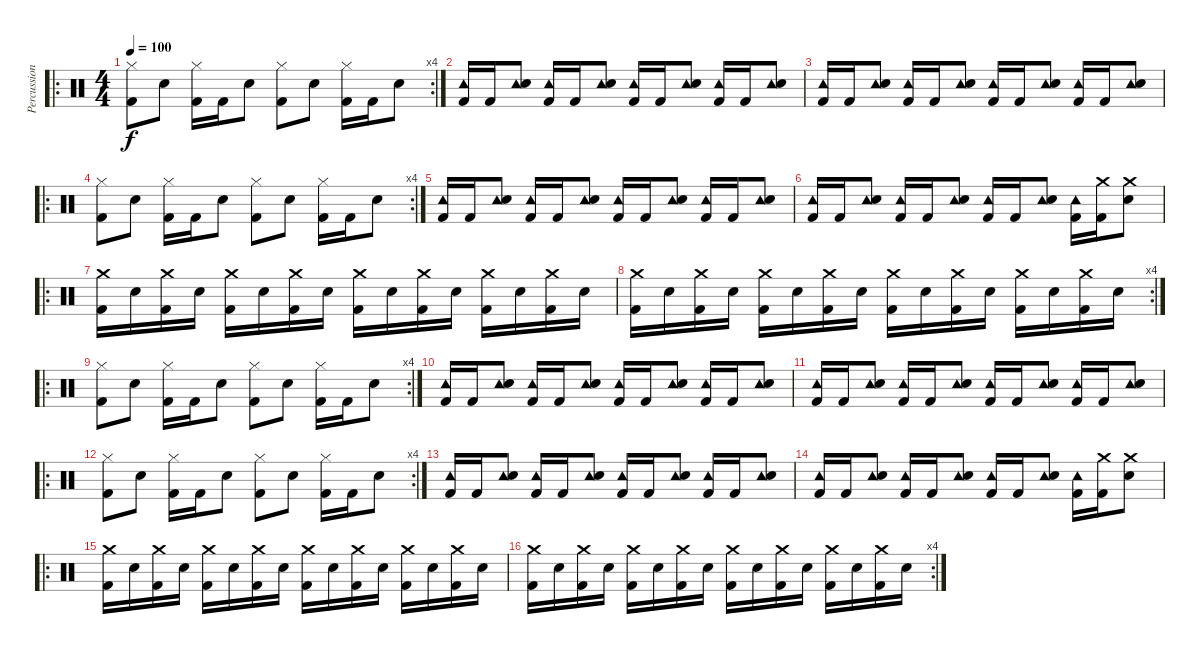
\track ("Percussion" "Percussion") {instrument percussion}
\staff {score}
\articulation defaults
\ro
\rc 4
\ts (4 4)
\tempo 100
\clef neutral
\ks c
("Hi-Hat (closed)" "Kick (hit) 2").8{dy f} "Snare (hit) 2".8 ("Hi-Hat (closed)" "Kick (hit) 2").16 "Kick (hit) 2".16 "Snare (hit) 2".8 ("Hi-Hat (closed)" "Kick (hit) 2").8 "Snare (hit) 2".8 ("Hi-Hat (closed)" "Kick (hit) 2").16 "Kick (hit) 2".16 "Snare (hit) 2".8 |
("Tambourine (hit)" "Kick (hit) 2").16 "Kick (hit) 2".16 ("Tambourine (hit)" "Snare (hit) 2").8 ("Tambourine (hit)" "Kick (hit) 2").16 "Kick (hit) 2".16 ("Tambourine (hit)" "Snare (hit) 2").8 ("Tambourine (hit)" "Kick (hit) 2").16 "Kick (hit) 2".16 ("Tambourine (hit)" "Snare (hit) 2").8 ("Tambourine (hit)" "Kick (hit) 2").16 "Kick (hit) 2".16 ("Tambourine (hit)" "Snare (hit) 2").8 |
("Tambourine (hit)" "Kick (hit) 2").16 "Kick (hit) 2".16 ("Tambourine (hit)" "Snare (hit) 2").8 ("Tambourine (hit)" "Kick (hit) 2").16 "Kick (hit) 2".16 ("Tambourine (hit)" "Snare (hit) 2").8 ("Tambourine (hit)" "Kick (hit) 2").16 "Kick (hit) 2".16 ("Tambourine (hit)" "Snare (hit) 2").8 ("Tambourine (hit)" "Kick (hit) 2").16 "Kick (hit) 2".16 ("Tambourine (hit)" "Snare (hit) 2").8 |
\ro
\rc 4
("Hi-Hat (closed)" "Kick (hit) 2").8 "Snare (hit) 2".8 ("Hi-Hat (closed)" "Kick (hit) 2").16 "Kick (hit) 2".16 "Snare (hit) 2".8 ("Hi-Hat (closed)" "Kick (hit) 2").8 "Snare (hit) 2".8 ("Hi-Hat (closed)" "Kick (hit) 2").16 "Kick (hit) 2".16 "Snare (hit) 2".8 |
("Tambourine (hit)" "Kick (hit) 2").16 "Kick (hit) 2".16 ("Tambourine (hit)" "Snare (hit) 2").8 ("Tambourine (hit)" "Kick (hit) 2").16 "Kick (hit) 2".16 ("Tambourine (hit)" "Snare (hit) 2").8 ("Tambourine (hit)" "Kick (hit) 2").16 "Kick (hit) 2".16 ("Tambourine (hit)" "Snare (hit) 2").8 ("Tambourine (hit)" "Kick (hit) 2").16 "Kick (hit) 2".16 ("Tambourine (hit)" "Snare (hit) 2").8 |
("Tambourine (hit)" "Kick (hit) 2").16 "Kick (hit) 2".16 ("Tambourine (hit)" "Snare (hit) 2").8 ("Tambourine (hit)" "Kick (hit) 2").16 "Kick (hit) 2".16 ("Tambourine (hit)" "Snare (hit) 2").8 ("Tambourine (hit)" "Kick (hit) 2").16 "Kick (hit) 2".16 ("Tambourine (hit)" "Snare (hit) 2").8 ("Tambourine (hit)" "Kick (hit) 2").16 ("Crash medium (hit)" "Kick (hit) 2").16 ("Crash medium (hit)" "Snare (hit) 2").8 |
\ro
("Crash medium (hit)" "Kick (hit) 2").16 "Snare (hit) 2".16 ("Crash medium (hit)" "Kick (hit) 2").16 "Snare (hit) 2".16 ("Crash medium (hit)" "Kick (hit) 2").16 "Snare (hit) 2".16 ("Crash medium (hit)" "Kick (hit) 2").16 "Snare (hit) 2".16 ("Crash medium (hit)" "Kick (hit) 2").16 "Snare (hit) 2".16 ("Crash medium (hit)" "Kick (hit) 2").16 "Snare (hit) 2".16 ("Crash medium (hit)" "Kick (hit) 2").16 "Snare (hit) 2".16 ("Crash medium (hit)" "Kick (hit) 2").16 "Snare (hit) 2".16 |
\rc 4
("Crash medium (hit)" "Kick (hit) 2").16 "Snare (hit) 2".16 ("Crash medium (hit)" "Kick (hit) 2").16 "Snare (hit) 2".16 ("Crash medium (hit)" "Kick (hit) 2").16 "Snare (hit) 2".16 ("Crash medium (hit)" "Kick (hit) 2").16 "Snare (hit) 2".16 ("Crash medium (hit)" "Kick (hit) 2").16 "Snare (hit) 2".16 ("Crash medium (hit)" "Kick (hit) 2").16 "Snare (hit) 2".16 ("Crash medium (hit)" "Kick (hit) 2").16 "Snare (hit) 2".16 ("Crash medium (hit)" "Kick (hit) 2").16 "Snare (hit) 2".16 |
\ro
\rc 4
("Hi-Hat (closed)" "Kick (hit) 2").8 "Snare (hit) 2".8 ("Hi-Hat (closed)" "Kick (hit) 2").16 "Kick (hit) 2".16 "Snare (hit) 2".8 ("Hi-Hat (closed)" "Kick (hit) 2").8 "Snare (hit) 2".8 ("Hi-Hat (closed)" "Kick (hit) 2").16 "Kick (hit) 2".16 "Snare (hit) 2".8 |
("Tambourine (hit)" "Kick (hit) 2").16 "Kick (hit) 2".16 ("Tambourine (hit)" "Snare (hit) 2").8 ("Tambourine (hit)" "Kick (hit) 2").16 "Kick (hit) 2".16 ("Tambourine (hit)" "Snare (hit) 2").8 ("Tambourine (hit)" "Kick (hit) 2").16 "Kick (hit) 2".16 ("Tambourine (hit)" "Snare (hit) 2").8 ("Tambourine (hit)" "Kick (hit) 2").16 "Kick (hit) 2".16 ("Tambourine (hit)" "Snare (hit) 2").8 |
("Tambourine (hit)" "Kick (hit) 2").16 "Kick (hit) 2".16 ("Tambourine (hit)" "Snare (hit) 2").8 ("Tambourine (hit)" "Kick (hit) 2").16 "Kick (hit) 2".16 ("Tambourine (hit)" "Snare (hit) 2").8 ("Tambourine (hit)" "Kick (hit) 2").16 "Kick (hit) 2".16 ("Tambourine (hit)" "Snare (hit) 2").8 ("Tambourine (hit)" "Kick (hit) 2").16 "Kick (hit) 2".16 ("Tambourine (hit)" "Snare (hit) 2").8 |
\ro
\rc 4
("Hi-Hat (closed)" "Kick (hit) 2").8 "Snare (hit) 2".8 ("Hi-Hat (closed)" "Kick (hit) 2").16 "Kick (hit) 2".16 "Snare (hit) 2".8 ("Hi-Hat (closed)" "Kick (hit) 2").8 "Snare (hit) 2".8 ("Hi-Hat (closed)" "Kick (hit) 2").16 "Kick (hit) 2".16 "Snare (hit) 2".8 |
("Tambourine (hit)" "Kick (hit) 2").16 "Kick (hit) 2".16 ("Tambourine (hit)" "Snare (hit) 2").8 ("Tambourine (hit)" "Kick (hit) 2").16 "Kick (hit) 2".16 ("Tambourine (hit)" "Snare (hit) 2").8 ("Tambourine (hit)" "Kick (hit) 2").16 "Kick (hit) 2".16 ("Tambourine (hit)" "Snare (hit) 2").8 ("Tambourine (hit)" "Kick (hit) 2").16 "Kick (hit) 2".16 ("Tambourine (hit)" "Snare (hit) 2").8 |
("Tambourine (hit)" "Kick (hit) 2").16 "Kick (hit) 2".16 ("Tambourine (hit)" "Snare (hit) 2").8 ("Tambourine (hit)" "Kick (hit) 2").16 "Kick (hit) 2".16 ("Tambourine (hit)" "Snare (hit) 2").8 ("Tambourine (hit)" "Kick (hit) 2").16 "Kick (hit) 2".16 ("Tambourine (hit)" "Snare (hit) 2").8 ("Tambourine (hit)" "Kick (hit) 2").16 ("Crash medium (hit)" "Kick (hit) 2").16 ("Crash medium (hit)" "Snare (hit) 2").8 |
\ro
("Crash medium (hit)" "Kick (hit) 2").16 "Snare (hit) 2".16 ("Crash medium (hit)" "Kick (hit) 2").16 "Snare (hit) 2".16 ("Crash medium (hit)" "Kick (hit) 2").16 "Snare (hit) 2".16 ("Crash medium (hit)" "Kick (hit) 2").16 "Snare (hit) 2".16 ("Crash medium (hit)" "Kick (hit) 2").16 "Snare (hit) 2".16 ("Crash medium (hit)" "Kick (hit) 2").16 "Snare (hit) 2".16 ("Crash medium (hit)" "Kick (hit) 2").16 "Snare (hit) 2".16 ("Crash medium (hit)" "Kick (hit) 2").16 "Snare (hit) 2".16 |
\rc 4
("Crash medium (hit)" "Kick (hit) 2").16 "Snare (hit) 2".16 ("Crash medium (hit)" "Kick (hit) 2").16 "Snare (hit) 2".16 ("Crash medium (hit)" "Kick (hit) 2").16 "Snare (hit) 2".16 ("Crash medium (hit)" "Kick (hit) 2").16 "Snare (hit) 2".16 ("Crash medium (hit)" "Kick (hit) 2").16 "Snare (hit) 2".16 ("Crash medium (hit)" "Kick (hit) 2").16 "Snare (hit) 2".16 ("Crash medium (hit)" "Kick (hit) 2").16 "Snare (hit) 2".16 ("Crash medium (hit)" "Kick (hit) 2").16 "Snare (hit) 2".16
